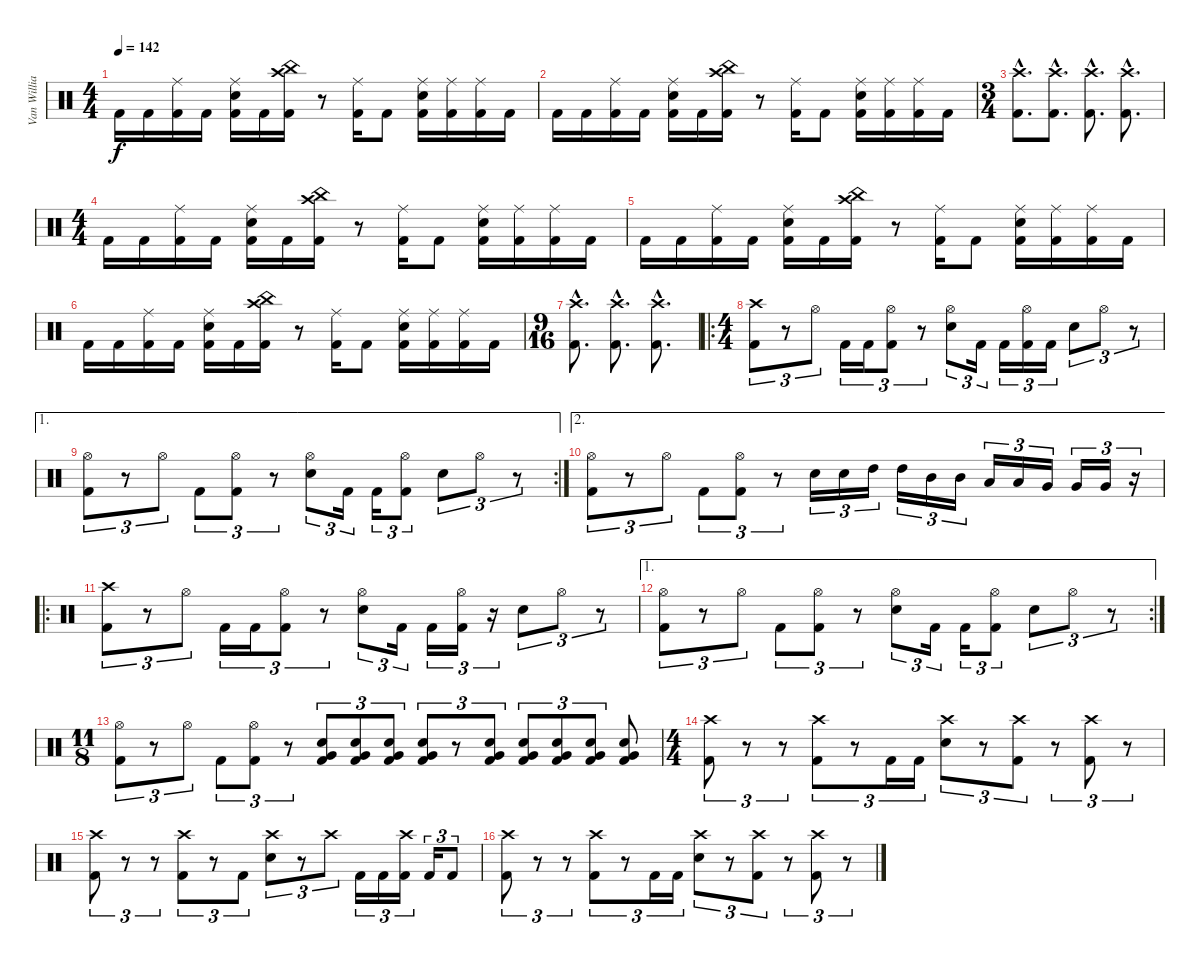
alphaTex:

\track ("Van Williams" "Van Willia") {instrument percussion}
\staff {score}
\articulation defaults
\ts (4 4)
\tempo 142
\clef neutral
\ks c "Kick (hit) 2".16{dy f} "Kick (hit) 2".16
("Ride (middle)" "Kick (hit) 2").16 "Kick (hit) 2".16 ("Ride (middle)" "Kick (hit) 2" "Electric Snare (hit)").16 "Kick (hit) 2".16 ("Crash high (hit)" "China (hit)" "Kick (hit) 2").16 r.8 ("Ride (middle)" "Kick (hit) 2").16 "Kick (hit) 2".8 ("Ride (middle)" "Kick (hit) 2" "Electric Snare (hit)").16 ("Ride (middle)" "Kick (hit) 2").16 ("Ride (middle)" "Kick (hit) 2").16 "Kick (hit) 2".16 |
"Kick (hit) 2".16 "Kick (hit) 2".16 ("Ride (middle)" "Kick (hit) 2").16 "Kick (hit) 2".16 ("Ride (middle)" "Kick (hit) 2" "Electric Snare (hit)").16 "Kick (hit) 2".16 ("Crash high (hit)" "China (hit)" "Kick (hit) 2").16 r.8 ("Ride (middle)" "Kick (hit) 2").16 "Kick (hit) 2".8 ("Ride (middle)" "Kick (hit) 2" "Electric Snare (hit)").16 ("Ride (middle)" "Kick (hit) 2").16 ("Ride (middle)" "Kick (hit) 2").16 "Kick (hit) 2".16 |
\ts (3 4)
("Crash high (hit)"{hac} "Kick (hit) 2"{hac}).8{d} ("Crash high (hit)"{hac} "Kick (hit) 2"{hac}).8{d} ("Crash high (hit)"{hac} "Kick (hit) 2"{hac}).8{d} ("Crash high (hit)"{hac} "Kick (hit) 2"{hac}).8{d} |
\ts (4 4)
"Kick (hit) 2".16 "Kick (hit) 2".16 ("Ride (middle)" "Kick (hit) 2").16 "Kick (hit) 2".16 ("Ride (middle)" "Kick (hit) 2" "Electric Snare (hit)").16 "Kick (hit) 2".16 ("Crash high (hit)" "China (hit)" "Kick (hit) 2").16 r.8 ("Ride (middle)" "Kick (hit) 2").16 "Kick (hit) 2".8 ("Ride (middle)" "Kick (hit) 2" "Electric Snare (hit)").16 ("Ride (middle)" "Kick (hit) 2").16 ("Ride (middle)" "Kick (hit) 2").16 "Kick (hit) 2".16 |
"Kick (hit) 2".16 "Kick (hit) 2".16 ("Ride (middle)" "Kick (hit) 2").16 "Kick (hit) 2".16 ("Ride (middle)" "Kick (hit) 2" "Electric Snare (hit)").16 "Kick (hit) 2".16 ("Crash high (hit)" "China (hit)" "Kick (hit) 2").16 r.8 ("Ride (middle)" "Kick (hit) 2").16 "Kick (hit) 2".8 ("Ride (middle)" "Kick (hit) 2" "Electric Snare (hit)").16 ("Ride (middle)" "Kick (hit) 2").16 ("Ride (middle)" "Kick (hit) 2").16 "Kick (hit) 2".16 |
"Kick (hit) 2".16 "Kick (hit) 2".16 ("Ride (middle)" "Kick (hit) 2").16 "Kick (hit) 2".16 ("Ride (middle)" "Kick (hit) 2" "Electric Snare (hit)").16 "Kick (hit) 2".16 ("Crash high (hit)" "China (hit)" "Kick (hit) 2").16 r.8 ("Ride (middle)" "Kick (hit) 2").16 "Kick (hit) 2".8 ("Ride (middle)" "Kick (hit) 2" "Electric Snare (hit)").16 ("Ride (middle)" "Kick (hit) 2").16 ("Ride (middle)" "Kick (hit) 2").16 "Kick (hit) 2".16 |
\ts (9 16)
("Crash high (hit)"{hac} "Kick (hit) 2"{hac}).8{d} ("Crash high (hit)"{hac} "Kick (hit) 2"{hac}).8{d} ("Crash high (hit)"{hac} "Kick (hit) 2"{hac}).8{d} |
\ro
\ts (4 4)
("Crash high (hit)" "Kick (hit) 2").8{tu (3 2)} r.8{tu (3 2)} "Hi-Hat (open)".8{tu (3 2)} "Kick (hit) 2".16{tu (3 2)} "Kick (hit) 2".16{tu (3 2)} ("Hi-Hat (open)" "Kick (hit) 2").8{tu (3 2)} r.8{tu (3 2)} ("Hi-Hat (open)" "Electric Snare (hit)").8{tu (3 2)} "Kick (hit) 2".16{tu (3 2)} "Kick (hit) 2".16{tu (3 2)} ("Hi-Hat (open)" "Kick (hit) 2").16{tu (3 2)} "Kick (hit) 2".16{tu (3 2)} "Electric Snare (hit)".8{tu (3 2)} "Hi-Hat (open)".8{tu (3 2)} r.8{tu (3 2)} |
\ae 1
\rc 2
("Hi-Hat (open)" "Kick (hit) 2").8{tu (3 2)} r.8{tu (3 2)} "Hi-Hat (open)".8{tu (3 2)} "Kick (hit) 2".8{tu (3 2)} ("Hi-Hat (open)" "Kick (hit) 2").8{tu (3 2)} r.8{tu (3 2)} ("Hi-Hat (open)" "Electric Snare (hit)").8{tu (3 2)} "Kick (hit) 2".16{tu (3 2)} "Kick (hit) 2".16{tu (3 2)} ("Hi-Hat (open)" "Kick (hit) 2").8{tu (3 2)} "Electric Snare (hit)".8{tu (3 2)} "Hi-Hat (open)".8{tu (3 2)} r.8{tu (3 2)} |
\ae 2
("Hi-Hat (open)" "Kick (hit) 2").8{tu (3 2)} r.8{tu (3 2)} "Hi-Hat (open)".8{tu (3 2)} "Kick (hit) 2".8{tu (3 2)} ("Hi-Hat (open)" "Kick (hit) 2").8{tu (3 2)} r.8{tu (3 2)} "Electric Snare (hit)".16{tu (3 2)} "Electric Snare (hit)".16{tu (3 2)} "High Tom (hit)".16{tu (3 2)} "High Tom (hit)".16{tu (3 2)} "Mid Tom (hit)".16{tu (3 2)} "Mid Tom (hit)".16{tu (3 2)} "Low Tom (hit)".16{tu (3 2)} "Low Tom (hit)".16{tu (3 2)} "Very Low Tom (hit)".16{tu (3 2)} "Very Low Tom (hit)".16{tu (3 2)} "Very Low Tom (hit)".16{tu (3 2)} r.16{tu (3 2)} |
\ro
("Crash high (hit)" "Kick (hit) 2").8{tu (3 2)} r.8{tu (3 2)} "Hi-Hat (open)".8{tu (3 2)} "Kick (hit) 2".16{tu (3 2)} "Kick (hit) 2".16{tu (3 2)} ("Hi-Hat (open)" "Kick (hit) 2").8{tu (3 2)} r.8{tu (3 2)} ("Hi-Hat (open)" "Electric Snare (hit)").8{tu (3 2)} "Kick (hit) 2".16{tu (3 2)} "Kick (hit) 2".16{tu (3 2)} ("Hi-Hat (open)" "Kick (hit) 2").16{tu (3 2)} r.16{tu (3 2)} "Electric Snare (hit)".8{tu (3 2)} "Hi-Hat (open)".8{tu (3 2)} r.8{tu (3 2)} |
\ae 1
\rc 2
("Hi-Hat (open)" "Kick (hit) 2").8{tu (3 2)} r.8{tu (3 2)} "Hi-Hat (open)".8{tu (3 2)} "Kick (hit) 2".8{tu (3 2)} ("Hi-Hat (open)" "Kick (hit) 2").8{tu (3 2)} r.8{tu (3 2)} ("Hi-Hat (open)" "Electric Snare (hit)").8{tu (3 2)} "Kick (hit) 2".16{tu (3 2)} "Kick (hit) 2".16{tu (3 2)} ("Hi-Hat (open)" "Kick (hit) 2").8{tu (3 2)} "Electric Snare (hit)".8{tu (3 2)} "Hi-Hat (open)".8{tu (3 2)} r.8{tu (3 2)} |
\ts (11 8)
("Hi-Hat (open)" "Kick (hit) 2").8{tu (3 2)} r.8{tu (3 2)} "Hi-Hat (open)".8{tu (3 2)} "Kick (hit) 2".8{tu (3 2)} ("Hi-Hat (open)" "Kick (hit) 2").8{tu (3 2)} r.8{tu (3 2)} ("Kick (hit) 2" "Electric Snare (hit)" "Very Low Tom (hit)").8{tu (3 2)} ("Kick (hit) 2" "Electric Snare (hit)" "Very Low Tom (hit)").8{tu (3 2)} ("Kick (hit) 2" "Electric Snare (hit)" "Very Low Tom (hit)").8{tu (3 2)} ("Kick (hit) 2" "Electric Snare (hit)" "Very Low Tom (hit)").8{tu (3 2)} r.8{tu (3 2)} ("Kick (hit) 2" "Electric Snare (hit)" "Very Low Tom (hit)").8{tu (3 2)} ("Kick (hit) 2" "Electric Snare (hit)" "Very Low Tom (hit)").8{tu (3 2)} ("Kick (hit) 2" "Electric Snare (hit)" "Very Low Tom (hit)").8{tu (3 2)} ("Kick (hit) 2" "Electric Snare (hit)" "Very Low Tom (hit)").8{tu (3 2)} ("Kick (hit) 2" "Electric Snare (hit)" "Very Low Tom (hit)").8 |
\ts (4 4)
("Crash high (hit)" "Kick (hit) 2").8{tu (3 2)} r.8{tu (3 2)} r.8{tu (3 2)} ("Crash high (hit)" "Kick (hit) 2").8{tu (3 2)} r.8{tu (3 2)} "Kick (hit) 2".16{tu (3 2)} "Kick (hit) 2".16{tu (3 2)} ("Crash high (hit)" "Electric Snare (hit)").8{tu (3 2)} r.8{tu (3 2)} ("Crash high (hit)" "Kick (hit) 2").8{tu (3 2)} r.8{tu (3 2)} ("Crash high (hit)" "Kick (hit) 2").8{tu (3 2)} r.8{tu (3 2)} |
("Crash high (hit)" "Kick (hit) 2").8{tu (3 2)} r.8{tu (3 2)} r.8{tu (3 2)} ("Crash high (hit)" "Kick (hit) 2").8{tu (3 2)} r.8{tu (3 2)} "Kick (hit) 2".8{tu (3 2)} ("Crash high (hit)" "Electric Snare (hit)").8{tu (3 2)} r.8{tu (3 2)} "Crash high (hit)".8{tu (3 2)} "Kick (hit) 2".16{tu (3 2)} "Kick (hit) 2".16{tu (3 2)} ("Crash high (hit)" "Kick (hit) 2").16{tu (3 2)} "Kick (hit) 2".16{tu (3 2)} "Kick (hit) 2".8{tu (3 2)} |
("Crash high (hit)" "Kick (hit) 2").8{tu (3 2)} r.8{tu (3 2)} r.8{tu (3 2)} ("Crash high (hit)" "Kick (hit) 2").8{tu (3 2)} r.8{tu (3 2)} "Kick (hit) 2".16{tu (3 2)} "Kick (hit) 2".16{tu (3 2)} ("Crash high (hit)" "Electric Snare (hit)").8{tu (3 2)} r.8{tu (3 2)} ("Crash high (hit)" "Kick (hit) 2").8{tu (3 2)} r.8{tu (3 2)} ("Crash high (hit)" "Kick (hit) 2").8{tu (3 2)} r.8{tu (3 2)}
